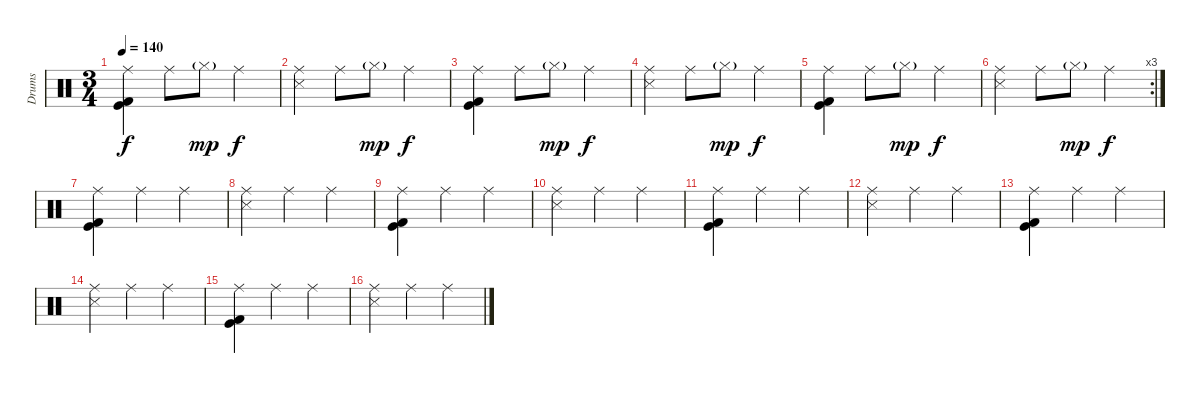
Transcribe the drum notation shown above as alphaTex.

\track ("Drums" "Drums") {instrument percussion}
\staff {score}
\articulation defaults
\ts (3 4)
\tempo 140
\clef neutral
\ks c
("Ride (middle)" "Kick (hit) 2" "Kick (hit)").4{dy f} "Ride (middle)".8 "Hi-Hat (closed)"{g}.8{dy mp} "Ride (middle)".4{dy f} |
("Ride (middle)" "Snare (side stick) 3").4 "Ride (middle)".8 "Hi-Hat (closed)"{g}.8{dy mp} "Ride (middle)".4{dy f} |
("Ride (middle)" "Kick (hit) 2" "Kick (hit)").4 "Ride (middle)".8 "Hi-Hat (closed)"{g}.8{dy mp} "Ride (middle)".4{dy f} |
("Ride (middle)" "Snare (side stick) 3").4 "Ride (middle)".8 "Hi-Hat (closed)"{g}.8{dy mp} "Ride (middle)".4{dy f} |
("Ride (middle)" "Kick (hit) 2" "Kick (hit)").4 "Ride (middle)".8 "Hi-Hat (closed)"{g}.8{dy mp} "Ride (middle)".4{dy f} |
\rc 3
("Ride (middle)" "Snare (side stick) 3").4 "Ride (middle)".8 "Hi-Hat (closed)"{g}.8{dy mp} "Ride (middle)".4{dy f} |
("Ride (middle)" "Kick (hit) 2" "Kick (hit)").4{volume 9} "Ride (middle)".4 "Ride (middle)".4 |
("Ride (middle)" "Snare (side stick) 3").4 "Ride (middle)".4 "Ride (middle)".4 |
("Ride (middle)" "Kick (hit) 2" "Kick (hit)").4 "Ride (middle)".4 "Ride (middle)".4 |
("Ride (middle)" "Snare (side stick) 3").4 "Ride (middle)".4 "Ride (middle)".4 |
("Ride (middle)" "Kick (hit) 2" "Kick (hit)").4 "Ride (middle)".4 "Ride (middle)".4 |
("Ride (middle)" "Snare (side stick) 3").4 "Ride (middle)".4{volume 7} "Ride (middle)".4 |
("Ride (middle)" "Kick (hit) 2" "Kick (hit)").4 "Ride (middle)".4 "Ride (middle)".4 |
("Ride (middle)" "Snare (side stick) 3").4 "Ride (middle)".4 "Ride (middle)".4 |
("Ride (middle)" "Kick (hit) 2" "Kick (hit)").4 "Ride (middle)".4 "Ride (middle)".4 |
("Ride (middle)" "Snare (side stick) 3").4 "Ride (middle)".4 "Ride (middle)".4
